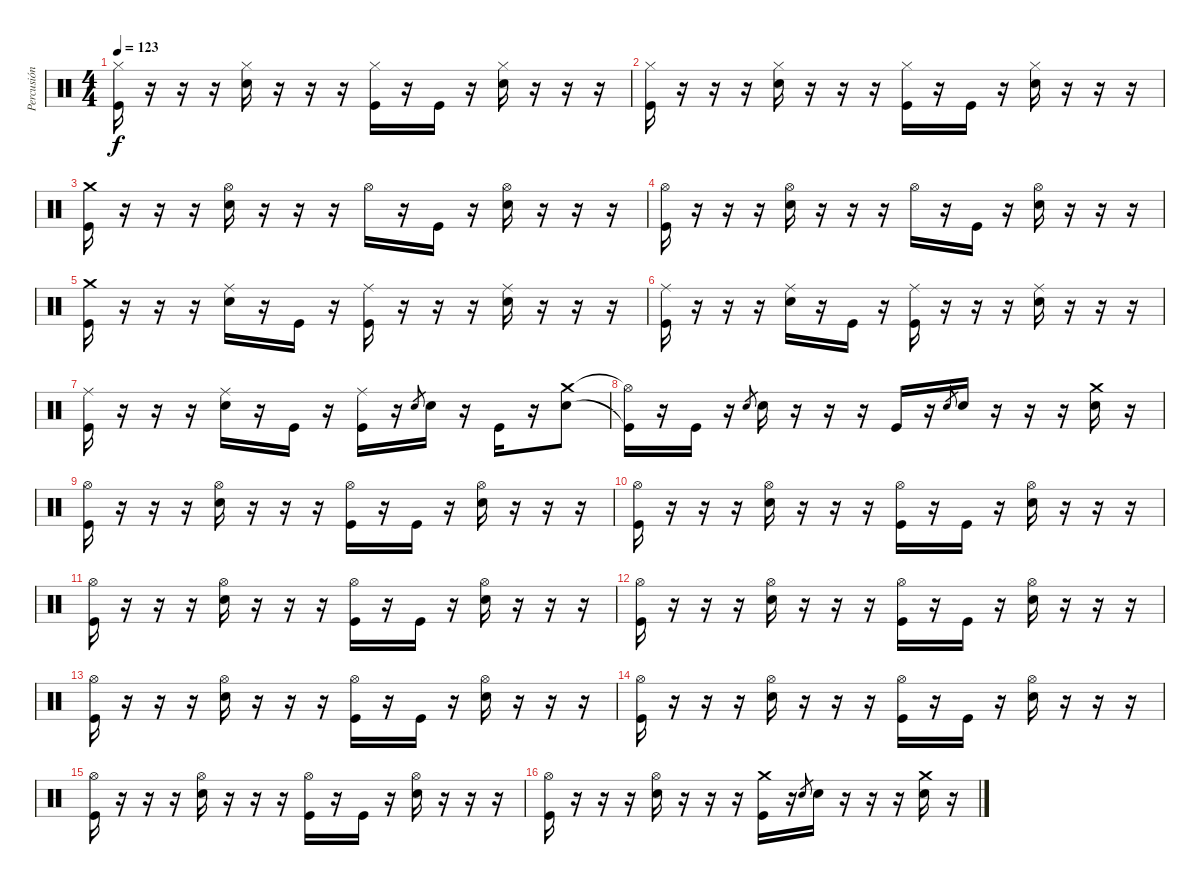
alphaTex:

\track ("Percusión" "Percusión") {instrument percussion}
\staff {score}
\articulation defaults
\ts (4 4)
\tempo 123
\clef neutral
\ks c
("Hi-Hat (closed)" "Kick (hit)").16{dy f} r.16 r.16 r.16 ("Hi-Hat (closed)" "Snare (hit) 2").16 r.16 r.16 r.16 ("Hi-Hat (closed)" "Kick (hit)").16 r.16 "Kick (hit)".16 r.16 ("Hi-Hat (closed)" "Snare (hit) 2").16 r.16 r.16 r.16 |
("Hi-Hat (closed)" "Kick (hit)").16 r.16 r.16 r.16 ("Hi-Hat (closed)" "Snare (hit) 2").16 r.16 r.16 r.16 ("Hi-Hat (closed)" "Kick (hit)").16 r.16 "Kick (hit)".16 r.16 ("Hi-Hat (closed)" "Snare (hit) 2").16 r.16 r.16 r.16 |
("Crash medium (hit)" "Kick (hit)").16 r.16 r.16 r.16 ("Hi-Hat (open)" "Snare (hit) 2").16 r.16 r.16 r.16 "Hi-Hat (open)".16 r.16 "Kick (hit)".16 r.16 ("Hi-Hat (open)" "Snare (hit) 2").16 r.16 r.16 r.16 |
("Hi-Hat (open)" "Kick (hit)").16 r.16 r.16 r.16 ("Hi-Hat (open)" "Snare (hit) 2").16 r.16 r.16 r.16 "Hi-Hat (open)".16 r.16 "Kick (hit)".16 r.16 ("Hi-Hat (open)" "Snare (hit) 2").16 r.16 r.16 r.16 |
("Crash medium (hit)" "Kick (hit)").16 r.16 r.16 r.16 ("Ride (middle)" "Snare (hit) 2").16 r.16 "Kick (hit)".16 r.16 ("Ride (middle)" "Kick (hit)").16 r.16 r.16 r.16 ("Ride (middle)" "Snare (hit) 2").16 r.16 r.16 r.16 |
("Ride (middle)" "Kick (hit)").16 r.16 r.16 r.16 ("Ride (middle)" "Snare (hit) 2").16 r.16 "Kick (hit)".16 r.16 ("Ride (middle)" "Kick (hit)").16 r.16 r.16 r.16 ("Ride (middle)" "Snare (hit) 2").16 r.16 r.16 r.16 |
("Ride (middle)" "Kick (hit)").16 r.16 r.16 r.16 ("Ride (middle)" "Snare (hit) 2").16 r.16 "Kick (hit)".16 r.16 ("Ride (middle)" "Kick (hit)").16 r.16 "Snare (hit) 2".8{gr} "Snare (hit) 2".16 r.16 "Kick (hit)".16 r.16 ("Crash medium (hit)" "Snare (hit) 2").8 |
("Hi-Hat (open)"{t} "Kick (hit)"{t}).16 r.16 "Kick (hit)".16 r.16 "Snare (hit) 2".8{gr} "Snare (hit) 2".16 r.16 r.16 r.16 "Kick (hit)".16 r.16 "Snare (hit) 2".8{gr} "Snare (hit) 2".16 r.16 r.16 r.16 ("Crash medium (hit)" "Snare (hit) 2").16 r.16 |
("Hi-Hat (open)" "Kick (hit)").16 r.16 r.16 r.16 ("Hi-Hat (open)" "Snare (hit) 2").16 r.16 r.16 r.16 ("Hi-Hat (open)" "Kick (hit)").16 r.16 "Kick (hit)".16 r.16 ("Hi-Hat (open)" "Snare (hit) 2").16 r.16 r.16 r.16 |
("Hi-Hat (open)" "Kick (hit)").16 r.16 r.16 r.16 ("Hi-Hat (open)" "Snare (hit) 2").16 r.16 r.16 r.16 ("Hi-Hat (open)" "Kick (hit)").16 r.16 "Kick (hit)".16 r.16 ("Hi-Hat (open)" "Snare (hit) 2").16 r.16 r.16 r.16 |
("Hi-Hat (open)" "Kick (hit)").16 r.16 r.16 r.16 ("Hi-Hat (open)" "Snare (hit) 2").16 r.16 r.16 r.16 ("Hi-Hat (open)" "Kick (hit)").16 r.16 "Kick (hit)".16 r.16 ("Hi-Hat (open)" "Snare (hit) 2").16 r.16 r.16 r.16 |
("Hi-Hat (open)" "Kick (hit)").16 r.16 r.16 r.16 ("Hi-Hat (open)" "Snare (hit) 2").16 r.16 r.16 r.16 ("Hi-Hat (open)" "Kick (hit)").16 r.16 "Kick (hit)".16 r.16 ("Hi-Hat (open)" "Snare (hit) 2").16 r.16 r.16 r.16 |
("Hi-Hat (open)" "Kick (hit)").16 r.16 r.16 r.16 ("Hi-Hat (open)" "Snare (hit) 2").16 r.16 r.16 r.16 ("Hi-Hat (open)" "Kick (hit)").16 r.16 "Kick (hit)".16 r.16 ("Hi-Hat (open)" "Snare (hit) 2").16 r.16 r.16 r.16 |
("Hi-Hat (open)" "Kick (hit)").16 r.16 r.16 r.16 ("Hi-Hat (open)" "Snare (hit) 2").16 r.16 r.16 r.16 ("Hi-Hat (open)" "Kick (hit)").16 r.16 "Kick (hit)".16 r.16 ("Hi-Hat (open)" "Snare (hit) 2").16 r.16 r.16 r.16 |
("Hi-Hat (open)" "Kick (hit)").16 r.16 r.16 r.16 ("Hi-Hat (open)" "Snare (hit) 2").16 r.16 r.16 r.16 ("Hi-Hat (open)" "Kick (hit)").16 r.16 "Kick (hit)".16 r.16 ("Hi-Hat (open)" "Snare (hit) 2").16 r.16 r.16 r.16 |
("Hi-Hat (open)" "Kick (hit)").16 r.16 r.16 r.16 ("Hi-Hat (open)" "Snare (hit) 2").16 r.16 r.16 r.16 ("Crash medium (hit)" "Kick (hit)").16 r.16 "Snare (hit) 2".8{gr} "Snare (hit) 2".16 r.16 r.16 r.16 ("Crash medium (hit)" "Snare (hit) 2").16 r.16
